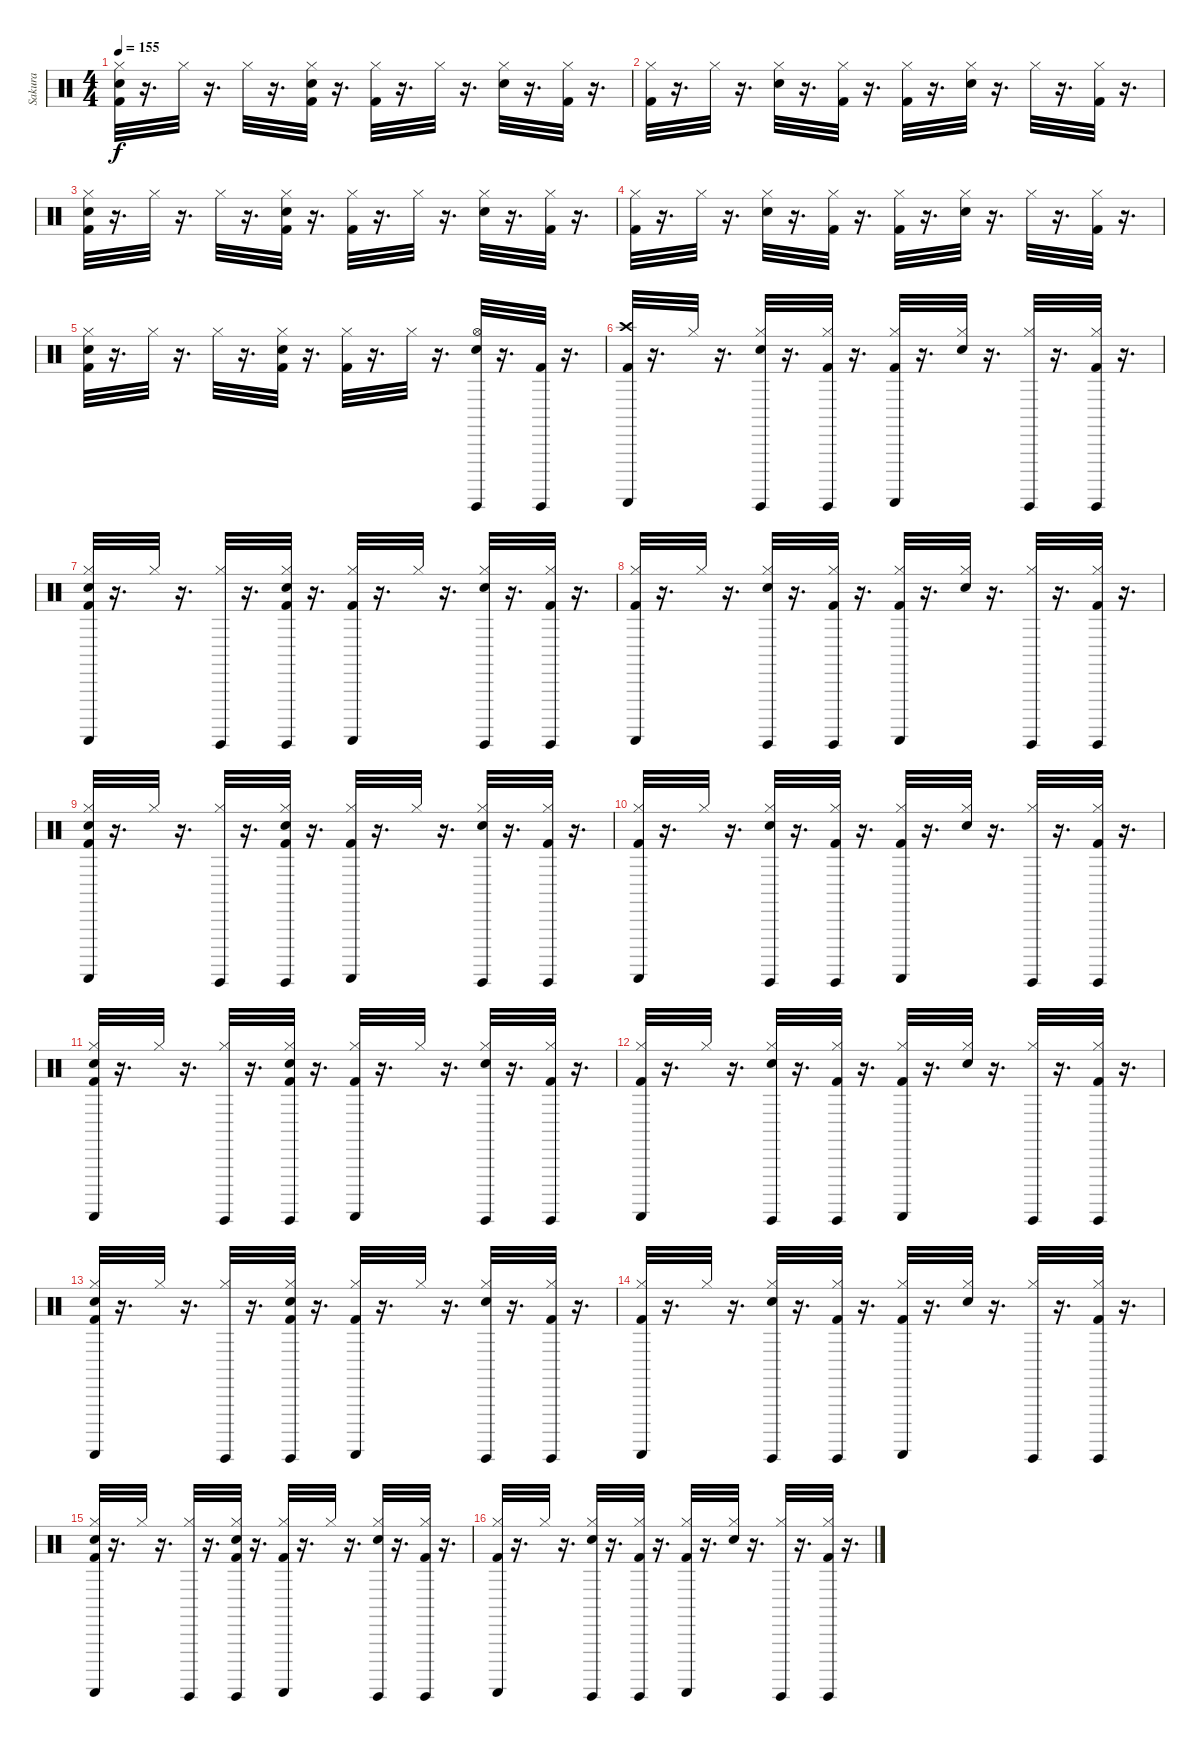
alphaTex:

\track ("Sakura" "Sakura") {instrument percussion}
\staff {score}
\articulation defaults
\ts (4 4)
\tempo 155
\clef neutral
\ks c
("Hi-Hat (closed)" "Snare (hit) 2" "Kick (hit) 2").32{dy f} r.16{d} "Hi-Hat (closed)".32 r.16{d} "Hi-Hat (closed)".32 r.16{d} ("Hi-Hat (closed)" "Kick (hit) 2" "Snare (hit) 2").32 r.16{d} ("Hi-Hat (closed)" "Kick (hit) 2").32 r.16{d} "Hi-Hat (closed)".32 r.16{d} ("Hi-Hat (closed)" "Snare (hit) 2").32 r.16{d} ("Hi-Hat (closed)" "Kick (hit) 2").32 r.16{d} |
("Kick (hit) 2" "Hi-Hat (closed)").32 r.16{d} "Hi-Hat (closed)".32 r.16{d} ("Hi-Hat (closed)" "Snare (hit) 2").32 r.16{d} ("Hi-Hat (closed)" "Kick (hit) 2").32 r.16{d} ("Hi-Hat (closed)" "Kick (hit) 2").32 r.16{d} ("Hi-Hat (closed)" "Snare (hit) 2").32 r.16{d} "Hi-Hat (closed)".32 r.16{d} ("Hi-Hat (closed)" "Kick (hit) 2").32 r.16{d} |
("Hi-Hat (closed)" "Snare (hit) 2" "Kick (hit) 2").32 r.16{d} "Hi-Hat (closed)".32 r.16{d} "Hi-Hat (closed)".32 r.16{d} ("Hi-Hat (closed)" "Kick (hit) 2" "Snare (hit) 2").32 r.16{d} ("Hi-Hat (closed)" "Kick (hit) 2").32 r.16{d} "Hi-Hat (closed)".32 r.16{d} ("Hi-Hat (closed)" "Snare (hit) 2").32 r.16{d} ("Hi-Hat (closed)" "Kick (hit) 2").32 r.16{d} |
("Kick (hit) 2" "Hi-Hat (closed)").32 r.16{d} "Hi-Hat (closed)".32 r.16{d} ("Hi-Hat (closed)" "Snare (hit) 2").32 r.16{d} ("Hi-Hat (closed)" "Kick (hit) 2").32 r.16{d} ("Hi-Hat (closed)" "Kick (hit) 2").32 r.16{d} ("Hi-Hat (closed)" "Snare (hit) 2").32 r.16{d} "Hi-Hat (closed)".32 r.16{d} ("Hi-Hat (closed)" "Kick (hit) 2").32 r.16{d} |
("Hi-Hat (closed)" "Snare (hit) 2" "Kick (hit) 2").32 r.16{d} "Hi-Hat (closed)".32 r.16{d} "Hi-Hat (closed)".32 r.16{d} ("Hi-Hat (closed)" "Kick (hit) 2" "Snare (hit) 2").32 r.16{d} ("Hi-Hat (closed)" "Kick (hit) 2").32 r.16{d} "Hi-Hat (closed)".32 r.16{d} ("Snare (hit) 2" "Hi-Hat (open)" "Guiro (hit)").32 r.16{d} ("Kick (hit) 2" "Guiro (hit)").32 r.16{d} |
("Crash high (hit)" "Kick (hit) 2" "Guiro (scrap-return)").32 r.16{d} "Hi-Hat (closed)".32 r.16{d} ("Hi-Hat (closed)" "Snare (hit) 2" "Guiro (hit)").32 r.16{d} ("Hi-Hat (closed)" "Kick (hit) 2" "Guiro (hit)").32 r.16{d} ("Hi-Hat (closed)" "Kick (hit) 2" "Guiro (scrap-return)").32 r.16{d} ("Hi-Hat (closed)" "Snare (hit) 2").32 r.16{d} ("Hi-Hat (closed)" "Guiro (hit)").32 r.16{d} ("Hi-Hat (closed)" "Kick (hit) 2" "Guiro (hit)").32 r.16{d} |
("Hi-Hat (closed)" "Snare (hit) 2" "Kick (hit) 2" "Guiro (scrap-return)").32 r.16{d} "Hi-Hat (closed)".32 r.16{d} ("Hi-Hat (closed)" "Guiro (hit)").32 r.16{d} ("Hi-Hat (closed)" "Kick (hit) 2" "Snare (hit) 2" "Guiro (hit)").32 r.16{d} ("Hi-Hat (closed)" "Kick (hit) 2" "Guiro (scrap-return)").32 r.16{d} "Hi-Hat (closed)".32 r.16{d} ("Hi-Hat (closed)" "Snare (hit) 2" "Guiro (hit)").32 r.16{d} ("Hi-Hat (closed)" "Kick (hit) 2" "Guiro (hit)").32 r.16{d} |
("Kick (hit) 2" "Hi-Hat (closed)" "Guiro (scrap-return)").32 r.16{d} "Hi-Hat (closed)".32 r.16{d} ("Hi-Hat (closed)" "Snare (hit) 2" "Guiro (hit)").32 r.16{d} ("Hi-Hat (closed)" "Kick (hit) 2" "Guiro (hit)").32 r.16{d} ("Hi-Hat (closed)" "Kick (hit) 2" "Guiro (scrap-return)").32 r.16{d} ("Hi-Hat (closed)" "Snare (hit) 2").32 r.16{d} ("Hi-Hat (closed)" "Guiro (hit)").32 r.16{d} ("Hi-Hat (closed)" "Kick (hit) 2" "Guiro (hit)").32 r.16{d} |
("Hi-Hat (closed)" "Snare (hit) 2" "Kick (hit) 2" "Guiro (scrap-return)").32 r.16{d} "Hi-Hat (closed)".32 r.16{d} ("Hi-Hat (closed)" "Guiro (hit)").32 r.16{d} ("Hi-Hat (closed)" "Kick (hit) 2" "Snare (hit) 2" "Guiro (hit)").32 r.16{d} ("Hi-Hat (closed)" "Kick (hit) 2" "Guiro (scrap-return)").32 r.16{d} "Hi-Hat (closed)".32 r.16{d} ("Hi-Hat (closed)" "Snare (hit) 2" "Guiro (hit)").32 r.16{d} ("Hi-Hat (closed)" "Kick (hit) 2" "Guiro (hit)").32 r.16{d} |
("Kick (hit) 2" "Hi-Hat (closed)" "Guiro (scrap-return)").32 r.16{d} "Hi-Hat (closed)".32 r.16{d} ("Hi-Hat (closed)" "Snare (hit) 2" "Guiro (hit)").32 r.16{d} ("Hi-Hat (closed)" "Kick (hit) 2" "Guiro (hit)").32 r.16{d} ("Hi-Hat (closed)" "Kick (hit) 2" "Guiro (scrap-return)").32 r.16{d} ("Hi-Hat (closed)" "Snare (hit) 2").32 r.16{d} ("Hi-Hat (closed)" "Guiro (hit)").32 r.16{d} ("Hi-Hat (closed)" "Kick (hit) 2" "Guiro (hit)").32 r.16{d} |
("Hi-Hat (closed)" "Snare (hit) 2" "Kick (hit) 2" "Guiro (scrap-return)").32 r.16{d} "Hi-Hat (closed)".32 r.16{d} ("Hi-Hat (closed)" "Guiro (hit)").32 r.16{d} ("Hi-Hat (closed)" "Kick (hit) 2" "Snare (hit) 2" "Guiro (hit)").32 r.16{d} ("Hi-Hat (closed)" "Kick (hit) 2" "Guiro (scrap-return)").32 r.16{d} "Hi-Hat (closed)".32 r.16{d} ("Hi-Hat (closed)" "Snare (hit) 2" "Guiro (hit)").32 r.16{d} ("Hi-Hat (closed)" "Kick (hit) 2" "Guiro (hit)").32 r.16{d} |
("Kick (hit) 2" "Hi-Hat (closed)" "Guiro (scrap-return)").32 r.16{d} "Hi-Hat (closed)".32 r.16{d} ("Hi-Hat (closed)" "Snare (hit) 2" "Guiro (hit)").32 r.16{d} ("Hi-Hat (closed)" "Kick (hit) 2" "Guiro (hit)").32 r.16{d} ("Hi-Hat (closed)" "Kick (hit) 2" "Guiro (scrap-return)").32 r.16{d} ("Hi-Hat (closed)" "Snare (hit) 2").32 r.16{d} ("Hi-Hat (closed)" "Guiro (hit)").32 r.16{d} ("Hi-Hat (closed)" "Kick (hit) 2" "Guiro (hit)").32 r.16{d} |
("Hi-Hat (closed)" "Snare (hit) 2" "Kick (hit) 2" "Guiro (scrap-return)").32 r.16{d} "Hi-Hat (closed)".32 r.16{d} ("Hi-Hat (closed)" "Guiro (hit)").32 r.16{d} ("Hi-Hat (closed)" "Kick (hit) 2" "Snare (hit) 2" "Guiro (hit)").32 r.16{d} ("Hi-Hat (closed)" "Kick (hit) 2" "Guiro (scrap-return)").32 r.16{d} "Hi-Hat (closed)".32 r.16{d} ("Hi-Hat (closed)" "Snare (hit) 2" "Guiro (hit)").32 r.16{d} ("Hi-Hat (closed)" "Kick (hit) 2" "Guiro (hit)").32 r.16{d} |
("Kick (hit) 2" "Hi-Hat (closed)" "Guiro (scrap-return)").32 r.16{d} "Hi-Hat (closed)".32 r.16{d} ("Hi-Hat (closed)" "Snare (hit) 2" "Guiro (hit)").32 r.16{d} ("Hi-Hat (closed)" "Kick (hit) 2" "Guiro (hit)").32 r.16{d} ("Hi-Hat (closed)" "Kick (hit) 2" "Guiro (scrap-return)").32 r.16{d} ("Hi-Hat (closed)" "Snare (hit) 2").32 r.16{d} ("Hi-Hat (closed)" "Guiro (hit)").32 r.16{d} ("Hi-Hat (closed)" "Kick (hit) 2" "Guiro (hit)").32 r.16{d} |
("Hi-Hat (closed)" "Snare (hit) 2" "Kick (hit) 2" "Guiro (scrap-return)").32 r.16{d} "Hi-Hat (closed)".32 r.16{d} ("Hi-Hat (closed)" "Guiro (hit)").32 r.16{d} ("Hi-Hat (closed)" "Kick (hit) 2" "Snare (hit) 2" "Guiro (hit)").32 r.16{d} ("Hi-Hat (closed)" "Kick (hit) 2" "Guiro (scrap-return)").32 r.16{d} "Hi-Hat (closed)".32 r.16{d} ("Hi-Hat (closed)" "Snare (hit) 2" "Guiro (hit)").32 r.16{d} ("Hi-Hat (closed)" "Kick (hit) 2" "Guiro (hit)").32 r.16{d} |
("Kick (hit) 2" "Hi-Hat (closed)" "Guiro (scrap-return)").32 r.16{d} "Hi-Hat (closed)".32 r.16{d} ("Hi-Hat (closed)" "Snare (hit) 2" "Guiro (hit)").32 r.16{d} ("Hi-Hat (closed)" "Kick (hit) 2" "Guiro (hit)").32 r.16{d} ("Hi-Hat (closed)" "Kick (hit) 2" "Guiro (scrap-return)").32 r.16{d} ("Hi-Hat (closed)" "Snare (hit) 2").32 r.16{d} ("Hi-Hat (closed)" "Guiro (hit)").32 r.16{d} ("Hi-Hat (closed)" "Kick (hit) 2" "Guiro (hit)").32 r.16{d}
